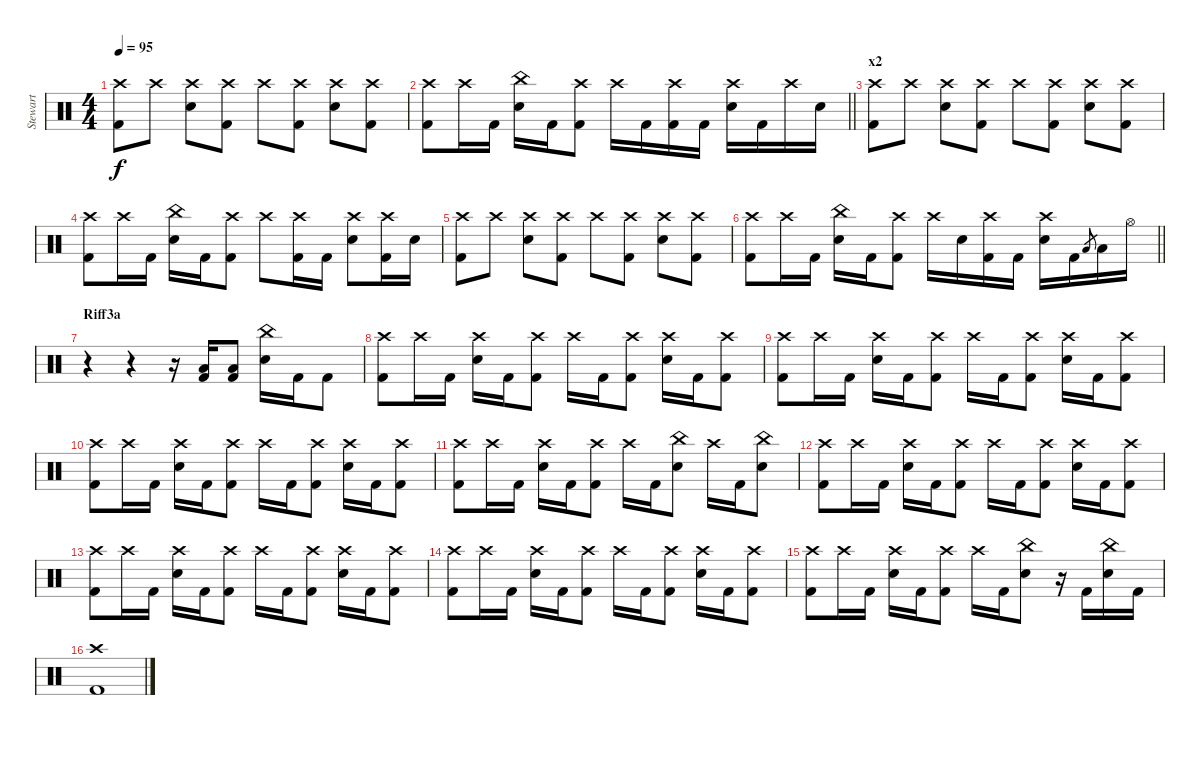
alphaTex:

\track ("Stewart" "Stewart") {instrument percussion}
\staff {score}
\articulation defaults
\ts (4 4)
\tempo 95
\clef neutral
\ks c
("Crash high (hit)" "Kick (hit) 2").8{dy f} "Crash high (hit)".8 ("Crash high (hit)" "Electric Snare (hit)").8 ("Crash high (hit)" "Kick (hit) 2").8 "Crash high (hit)".8 ("Crash high (hit)" "Kick (hit) 2").8 ("Crash high (hit)" "Electric Snare (hit)").8 ("Crash high (hit)" "Kick (hit) 2").8 |
\barLineRight lightlight
("Crash high (hit)" "Kick (hit) 2").8 "Crash high (hit)".16 "Kick (hit) 2".16 ("China (hit)" "Electric Snare (hit)").16 "Kick (hit) 2".16 ("Crash high (hit)" "Kick (hit) 2").8 "Crash high (hit)".16 "Kick (hit) 2".16 ("Crash high (hit)" "Kick (hit) 2").16 "Kick (hit) 2".16 ("Crash high (hit)" "Electric Snare (hit)").16 "Kick (hit) 2".16 "Crash high (hit)".16 "Electric Snare (hit)".16 |
\section ("" "x2")
("Crash high (hit)" "Kick (hit) 2").8 "Crash high (hit)".8 ("Crash high (hit)" "Electric Snare (hit)").8 ("Crash high (hit)" "Kick (hit) 2").8 "Crash high (hit)".8 ("Crash high (hit)" "Kick (hit) 2").8 ("Crash high (hit)" "Electric Snare (hit)").8 ("Crash high (hit)" "Kick (hit) 2").8 |
("Crash high (hit)" "Kick (hit) 2").8 "Crash high (hit)".16 "Kick (hit) 2".16 ("China (hit)" "Electric Snare (hit)").16 "Kick (hit) 2".16 ("Crash high (hit)" "Kick (hit) 2").8 "Crash high (hit)".8 ("Crash high (hit)" "Kick (hit) 2").16 "Kick (hit) 2".16 ("Crash high (hit)" "Electric Snare (hit)").8 ("Crash high (hit)" "Kick (hit) 2").16 "Electric Snare (hit)".16 |
("Crash high (hit)" "Kick (hit) 2").8 "Crash high (hit)".8 ("Crash high (hit)" "Electric Snare (hit)").8 ("Crash high (hit)" "Kick (hit) 2").8 "Crash high (hit)".8 ("Crash high (hit)" "Kick (hit) 2").8 ("Crash high (hit)" "Electric Snare (hit)").8 ("Crash high (hit)" "Kick (hit) 2").8 |
\barLineRight lightlight
("Crash high (hit)" "Kick (hit) 2").8 "Crash high (hit)".16 "Kick (hit) 2".16 ("China (hit)" "Electric Snare (hit)").16 "Kick (hit) 2".16 ("Crash high (hit)" "Kick (hit) 2").8 "Crash high (hit)".16 "Electric Snare (hit)".16 ("Crash high (hit)" "Kick (hit) 2").16 "Kick (hit) 2".16 ("Crash high (hit)" "Electric Snare (hit)").16 "Kick (hit) 2".16 "Low Tom (hit)".8{gr} "Low Tom (hit)".16 "Hi-Hat (open)".16 |
\section ("" "Riff3a")
r.4 r.4 r.16 ("Low Tom (hit)" "Kick (hit) 2").16 ("Low Tom (hit)" "Kick (hit) 2").8 ("China (hit)" "Electric Snare (hit)").16 "Kick (hit) 2".16 "Kick (hit) 2".8 |
("Crash high (hit)" "Kick (hit) 2").8 "Crash high (hit)".16 "Kick (hit) 2".16 ("Crash high (hit)" "Electric Snare (hit)").16 "Kick (hit) 2".16 ("Crash high (hit)" "Kick (hit) 2").8 "Crash high (hit)".16 "Kick (hit) 2".16 ("Crash high (hit)" "Kick (hit) 2").8 ("Crash high (hit)" "Electric Snare (hit)").16 "Kick (hit) 2".16 ("Crash high (hit)" "Kick (hit) 2").8 |
("Crash high (hit)" "Kick (hit) 2").8 "Crash high (hit)".16 "Kick (hit) 2".16 ("Crash high (hit)" "Electric Snare (hit)").16 "Kick (hit) 2".16 ("Crash high (hit)" "Kick (hit) 2").8 "Crash high (hit)".16 "Kick (hit) 2".16 ("Crash high (hit)" "Kick (hit) 2").8 ("Crash high (hit)" "Electric Snare (hit)").16 "Kick (hit) 2".16 ("Crash high (hit)" "Kick (hit) 2").8 |
("Crash high (hit)" "Kick (hit) 2").8 "Crash high (hit)".16 "Kick (hit) 2".16 ("Crash high (hit)" "Electric Snare (hit)").16 "Kick (hit) 2".16 ("Crash high (hit)" "Kick (hit) 2").8 "Crash high (hit)".16 "Kick (hit) 2".16 ("Crash high (hit)" "Kick (hit) 2").8 ("Crash high (hit)" "Electric Snare (hit)").16 "Kick (hit) 2".16 ("Crash high (hit)" "Kick (hit) 2").8 |
("Crash high (hit)" "Kick (hit) 2").8 "Crash high (hit)".16 "Kick (hit) 2".16 ("Crash high (hit)" "Electric Snare (hit)").16 "Kick (hit) 2".16 ("Crash high (hit)" "Kick (hit) 2").8 "Crash high (hit)".16 "Kick (hit) 2".16 ("China (hit)" "Electric Snare (hit)").8 "Crash high (hit)".16 "Kick (hit) 2".16 ("China (hit)" "Electric Snare (hit)").8 |
("Crash high (hit)" "Kick (hit) 2").8 "Crash high (hit)".16 "Kick (hit) 2".16 ("Crash high (hit)" "Electric Snare (hit)").16 "Kick (hit) 2".16 ("Crash high (hit)" "Kick (hit) 2").8 "Crash high (hit)".16 "Kick (hit) 2".16 ("Crash high (hit)" "Kick (hit) 2").8 ("Crash high (hit)" "Electric Snare (hit)").16 "Kick (hit) 2".16 ("Crash high (hit)" "Kick (hit) 2").8 |
("Crash high (hit)" "Kick (hit) 2").8 "Crash high (hit)".16 "Kick (hit) 2".16 ("Crash high (hit)" "Electric Snare (hit)").16 "Kick (hit) 2".16 ("Crash high (hit)" "Kick (hit) 2").8 "Crash high (hit)".16 "Kick (hit) 2".16 ("Crash high (hit)" "Kick (hit) 2").8 ("Crash high (hit)" "Electric Snare (hit)").16 "Kick (hit) 2".16 ("Crash high (hit)" "Kick (hit) 2").8 |
("Crash high (hit)" "Kick (hit) 2").8 "Crash high (hit)".16 "Kick (hit) 2".16 ("Crash high (hit)" "Electric Snare (hit)").16 "Kick (hit) 2".16 ("Crash high (hit)" "Kick (hit) 2").8 "Crash high (hit)".16 "Kick (hit) 2".16 ("Crash high (hit)" "Kick (hit) 2").8 ("Crash high (hit)" "Electric Snare (hit)").16 "Kick (hit) 2".16 ("Crash high (hit)" "Kick (hit) 2").8 |
("Crash high (hit)" "Kick (hit) 2").8 "Crash high (hit)".16 "Kick (hit) 2".16 ("Crash high (hit)" "Electric Snare (hit)").16 "Kick (hit) 2".16 ("Crash high (hit)" "Kick (hit) 2").8 "Crash high (hit)".16 "Kick (hit) 2".16 ("China (hit)" "Electric Snare (hit)").8 r.16 "Kick (hit) 2".16 ("China (hit)" "Electric Snare (hit)").16 "Kick (hit) 2".16 |
("Crash high (hit)" "Kick (hit) 2").1
